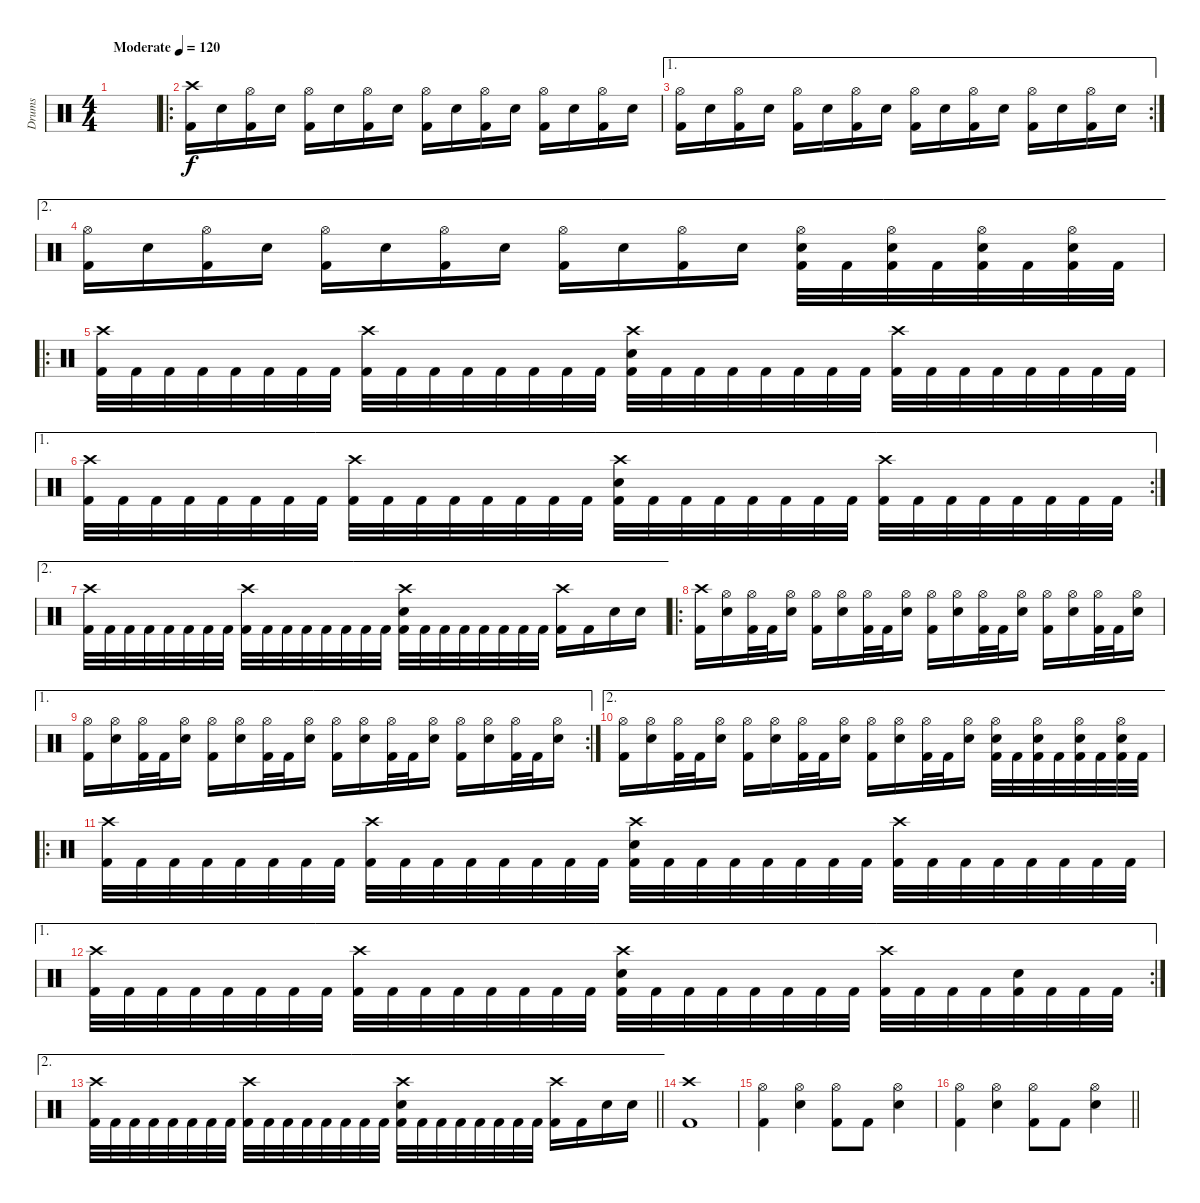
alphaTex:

\track ("Drums" "Drums") {instrument percussion}
\staff
\articulation defaults
\ts (4 4)
\tempo (120 "Moderate")
\clef neutral
\ks c
|
\ro
("Crash high (hit)" "Kick (hit) 2").16 "Electric Snare (hit)".16 ("Hi-Hat (open)" "Kick (hit) 2").16 "Electric Snare (hit)".16 ("Hi-Hat (open)" "Kick (hit) 2").16 "Electric Snare (hit)".16 ("Hi-Hat (open)" "Kick (hit) 2").16 "Electric Snare (hit)".16 ("Hi-Hat (open)" "Kick (hit) 2").16 "Electric Snare (hit)".16 ("Hi-Hat (open)" "Kick (hit) 2").16 "Electric Snare (hit)".16 ("Hi-Hat (open)" "Kick (hit) 2").16 "Electric Snare (hit)".16 ("Hi-Hat (open)" "Kick (hit) 2").16 "Electric Snare (hit)".16 |
\ae 1
\rc 2
("Hi-Hat (open)" "Kick (hit) 2").16 "Electric Snare (hit)".16 ("Hi-Hat (open)" "Kick (hit) 2").16 "Electric Snare (hit)".16 ("Hi-Hat (open)" "Kick (hit) 2").16 "Electric Snare (hit)".16 ("Hi-Hat (open)" "Kick (hit) 2").16 "Electric Snare (hit)".16 ("Hi-Hat (open)" "Kick (hit) 2").16 "Electric Snare (hit)".16 ("Hi-Hat (open)" "Kick (hit) 2").16 "Electric Snare (hit)".16 ("Hi-Hat (open)" "Kick (hit) 2").16 "Electric Snare (hit)".16 ("Hi-Hat (open)" "Kick (hit) 2").16 "Electric Snare (hit)".16 |
\ae 2
("Hi-Hat (open)" "Kick (hit) 2").16 "Electric Snare (hit)".16 ("Hi-Hat (open)" "Kick (hit) 2").16 "Electric Snare (hit)".16 ("Hi-Hat (open)" "Kick (hit) 2").16 "Electric Snare (hit)".16 ("Hi-Hat (open)" "Kick (hit) 2").16 "Electric Snare (hit)".16 ("Hi-Hat (open)" "Kick (hit) 2").16 "Electric Snare (hit)".16 ("Hi-Hat (open)" "Kick (hit) 2").16 "Electric Snare (hit)".16 ("Hi-Hat (open)" "Electric Snare (hit)" "Kick (hit) 2").32 "Kick (hit) 2".32 ("Hi-Hat (open)" "Electric Snare (hit)" "Kick (hit) 2").32 "Kick (hit) 2".32 ("Hi-Hat (open)" "Electric Snare (hit)" "Kick (hit) 2").32 "Kick (hit) 2".32 ("Hi-Hat (open)" "Electric Snare (hit)" "Kick (hit) 2").32 "Kick (hit) 2".32 |
\ro
("Crash high (hit)" "Kick (hit) 2").32 "Kick (hit) 2".32 "Kick (hit) 2".32 "Kick (hit) 2".32 "Kick (hit) 2".32 "Kick (hit) 2".32 "Kick (hit) 2".32 "Kick (hit) 2".32 ("Crash high (hit)" "Kick (hit) 2").32 "Kick (hit) 2".32 "Kick (hit) 2".32 "Kick (hit) 2".32 "Kick (hit) 2".32 "Kick (hit) 2".32 "Kick (hit) 2".32 "Kick (hit) 2".32 ("Crash high (hit)" "Electric Snare (hit)" "Kick (hit) 2").32 "Kick (hit) 2".32 "Kick (hit) 2".32 "Kick (hit) 2".32 "Kick (hit) 2".32 "Kick (hit) 2".32 "Kick (hit) 2".32 "Kick (hit) 2".32 ("Crash high (hit)" "Kick (hit) 2").32 "Kick (hit) 2".32 "Kick (hit) 2".32 "Kick (hit) 2".32 "Kick (hit) 2".32 "Kick (hit) 2".32 "Kick (hit) 2".32 "Kick (hit) 2".32 |
\ae 1
\rc 2
("Crash high (hit)" "Kick (hit) 2").32 "Kick (hit) 2".32 "Kick (hit) 2".32 "Kick (hit) 2".32 "Kick (hit) 2".32 "Kick (hit) 2".32 "Kick (hit) 2".32 "Kick (hit) 2".32 ("Crash high (hit)" "Kick (hit) 2").32 "Kick (hit) 2".32 "Kick (hit) 2".32 "Kick (hit) 2".32 "Kick (hit) 2".32 "Kick (hit) 2".32 "Kick (hit) 2".32 "Kick (hit) 2".32 ("Crash high (hit)" "Electric Snare (hit)" "Kick (hit) 2").32 "Kick (hit) 2".32 "Kick (hit) 2".32 "Kick (hit) 2".32 "Kick (hit) 2".32 "Kick (hit) 2".32 "Kick (hit) 2".32 "Kick (hit) 2".32 ("Crash high (hit)" "Kick (hit) 2").32 "Kick (hit) 2".32 "Kick (hit) 2".32 "Kick (hit) 2".32 "Kick (hit) 2".32 "Kick (hit) 2".32 "Kick (hit) 2".32 "Kick (hit) 2".32 |
\ae 2
("Crash high (hit)" "Kick (hit) 2").32 "Kick (hit) 2".32 "Kick (hit) 2".32 "Kick (hit) 2".32 "Kick (hit) 2".32 "Kick (hit) 2".32 "Kick (hit) 2".32 "Kick (hit) 2".32 ("Crash high (hit)" "Kick (hit) 2").32 "Kick (hit) 2".32 "Kick (hit) 2".32 "Kick (hit) 2".32 "Kick (hit) 2".32 "Kick (hit) 2".32 "Kick (hit) 2".32 "Kick (hit) 2".32 ("Crash high (hit)" "Electric Snare (hit)" "Kick (hit) 2").32 "Kick (hit) 2".32 "Kick (hit) 2".32 "Kick (hit) 2".32 "Kick (hit) 2".32 "Kick (hit) 2".32 "Kick (hit) 2".32 "Kick (hit) 2".32 ("Crash high (hit)" "Kick (hit) 2").16 "Kick (hit) 2".16 "Electric Snare (hit)".16 "Electric Snare (hit)".16 |
\ro
("Crash high (hit)" "Kick (hit) 2").16 ("Hi-Hat (open)" "Electric Snare (hit)").16 ("Hi-Hat (open)" "Kick (hit) 2").32 "Kick (hit) 2".32 ("Hi-Hat (open)" "Electric Snare (hit)").16 ("Hi-Hat (open)" "Kick (hit) 2").16 ("Hi-Hat (open)" "Electric Snare (hit)").16 ("Hi-Hat (open)" "Kick (hit) 2").32 "Kick (hit) 2".32 ("Hi-Hat (open)" "Electric Snare (hit)").16 ("Hi-Hat (open)" "Kick (hit) 2").16 ("Hi-Hat (open)" "Electric Snare (hit)").16 ("Hi-Hat (open)" "Kick (hit) 2").32 "Kick (hit) 2".32 ("Hi-Hat (open)" "Electric Snare (hit)").16 ("Hi-Hat (open)" "Kick (hit) 2").16 ("Hi-Hat (open)" "Electric Snare (hit)").16 ("Hi-Hat (open)" "Kick (hit) 2").32 "Kick (hit) 2".32 ("Hi-Hat (open)" "Electric Snare (hit)").16 |
\ae 1
\rc 2
("Hi-Hat (open)" "Kick (hit) 2").16 ("Hi-Hat (open)" "Electric Snare (hit)").16 ("Hi-Hat (open)" "Kick (hit) 2").32 "Kick (hit) 2".32 ("Hi-Hat (open)" "Electric Snare (hit)").16 ("Hi-Hat (open)" "Kick (hit) 2").16 ("Hi-Hat (open)" "Electric Snare (hit)").16 ("Hi-Hat (open)" "Kick (hit) 2").32 "Kick (hit) 2".32 ("Hi-Hat (open)" "Electric Snare (hit)").16 ("Hi-Hat (open)" "Kick (hit) 2").16 ("Hi-Hat (open)" "Electric Snare (hit)").16 ("Hi-Hat (open)" "Kick (hit) 2").32 "Kick (hit) 2".32 ("Hi-Hat (open)" "Electric Snare (hit)").16 ("Hi-Hat (open)" "Kick (hit) 2").16 ("Hi-Hat (open)" "Electric Snare (hit)").16 ("Hi-Hat (open)" "Kick (hit) 2").32 "Kick (hit) 2".32 ("Hi-Hat (open)" "Electric Snare (hit)").16 |
\ae 2
("Hi-Hat (open)" "Kick (hit) 2").16 ("Hi-Hat (open)" "Electric Snare (hit)").16 ("Hi-Hat (open)" "Kick (hit) 2").32 "Kick (hit) 2".32 ("Hi-Hat (open)" "Electric Snare (hit)").16 ("Hi-Hat (open)" "Kick (hit) 2").16 ("Hi-Hat (open)" "Electric Snare (hit)").16 ("Hi-Hat (open)" "Kick (hit) 2").32 "Kick (hit) 2".32 ("Hi-Hat (open)" "Electric Snare (hit)").16 ("Hi-Hat (open)" "Kick (hit) 2").16 ("Hi-Hat (open)" "Electric Snare (hit)").16 ("Hi-Hat (open)" "Kick (hit) 2").32 "Kick (hit) 2".32 ("Hi-Hat (open)" "Electric Snare (hit)").16 ("Hi-Hat (open)" "Electric Snare (hit)" "Kick (hit) 2").32 "Kick (hit) 2".32 ("Hi-Hat (open)" "Electric Snare (hit)" "Kick (hit) 2").32 "Kick (hit) 2".32 ("Hi-Hat (open)" "Electric Snare (hit)" "Kick (hit) 2").32 "Kick (hit) 2".32 ("Hi-Hat (open)" "Electric Snare (hit)" "Kick (hit) 2").32 "Kick (hit) 2".32 |
\ro
("Crash high (hit)" "Kick (hit) 2").32 "Kick (hit) 2".32 "Kick (hit) 2".32 "Kick (hit) 2".32 "Kick (hit) 2".32 "Kick (hit) 2".32 "Kick (hit) 2".32 "Kick (hit) 2".32 ("Crash high (hit)" "Kick (hit) 2").32 "Kick (hit) 2".32 "Kick (hit) 2".32 "Kick (hit) 2".32 "Kick (hit) 2".32 "Kick (hit) 2".32 "Kick (hit) 2".32 "Kick (hit) 2".32 ("Crash high (hit)" "Electric Snare (hit)" "Kick (hit) 2").32 "Kick (hit) 2".32 "Kick (hit) 2".32 "Kick (hit) 2".32 "Kick (hit) 2".32 "Kick (hit) 2".32 "Kick (hit) 2".32 "Kick (hit) 2".32 ("Crash high (hit)" "Kick (hit) 2").32 "Kick (hit) 2".32 "Kick (hit) 2".32 "Kick (hit) 2".32 "Kick (hit) 2".32 "Kick (hit) 2".32 "Kick (hit) 2".32 "Kick (hit) 2".32 |
\ae 1
\rc 2
("Crash high (hit)" "Kick (hit) 2").32 "Kick (hit) 2".32 "Kick (hit) 2".32 "Kick (hit) 2".32 "Kick (hit) 2".32 "Kick (hit) 2".32 "Kick (hit) 2".32 "Kick (hit) 2".32 ("Crash high (hit)" "Kick (hit) 2").32 "Kick (hit) 2".32 "Kick (hit) 2".32 "Kick (hit) 2".32 "Kick (hit) 2".32 "Kick (hit) 2".32 "Kick (hit) 2".32 "Kick (hit) 2".32 ("Crash high (hit)" "Electric Snare (hit)" "Kick (hit) 2").32 "Kick (hit) 2".32 "Kick (hit) 2".32 "Kick (hit) 2".32 "Kick (hit) 2".32 "Kick (hit) 2".32 "Kick (hit) 2".32 "Kick (hit) 2".32 ("Crash high (hit)" "Kick (hit) 2").32 "Kick (hit) 2".32 "Kick (hit) 2".32 "Kick (hit) 2".32 ("Electric Snare (hit)" "Kick (hit) 2").32 "Kick (hit) 2".32 "Kick (hit) 2".32 "Kick (hit) 2".32 |
\ae 2
\barLineRight lightlight
("Crash high (hit)" "Kick (hit) 2").32 "Kick (hit) 2".32 "Kick (hit) 2".32 "Kick (hit) 2".32 "Kick (hit) 2".32 "Kick (hit) 2".32 "Kick (hit) 2".32 "Kick (hit) 2".32 ("Crash high (hit)" "Kick (hit) 2").32 "Kick (hit) 2".32 "Kick (hit) 2".32 "Kick (hit) 2".32 "Kick (hit) 2".32 "Kick (hit) 2".32 "Kick (hit) 2".32 "Kick (hit) 2".32 ("Crash high (hit)" "Electric Snare (hit)" "Kick (hit) 2").32 "Kick (hit) 2".32 "Kick (hit) 2".32 "Kick (hit) 2".32 "Kick (hit) 2".32 "Kick (hit) 2".32 "Kick (hit) 2".32 "Kick (hit) 2".32 ("Crash high (hit)" "Kick (hit) 2").16 "Kick (hit) 2".16 "Electric Snare (hit)".16 "Electric Snare (hit)".16 |
\section ("" "")
("Crash high (hit)" "Kick (hit) 2").1 |
("Hi-Hat (open)" "Kick (hit) 2").4 ("Hi-Hat (open)" "Electric Snare (hit)").4 ("Hi-Hat (open)" "Kick (hit) 2").8 "Kick (hit) 2".8 ("Hi-Hat (open)" "Electric Snare (hit)").4 |
\barLineRight lightlight
("Hi-Hat (open)" "Kick (hit) 2").4 ("Hi-Hat (open)" "Electric Snare (hit)").4 ("Hi-Hat (open)" "Kick (hit) 2").8 "Kick (hit) 2".8 ("Hi-Hat (open)" "Electric Snare (hit)").4
